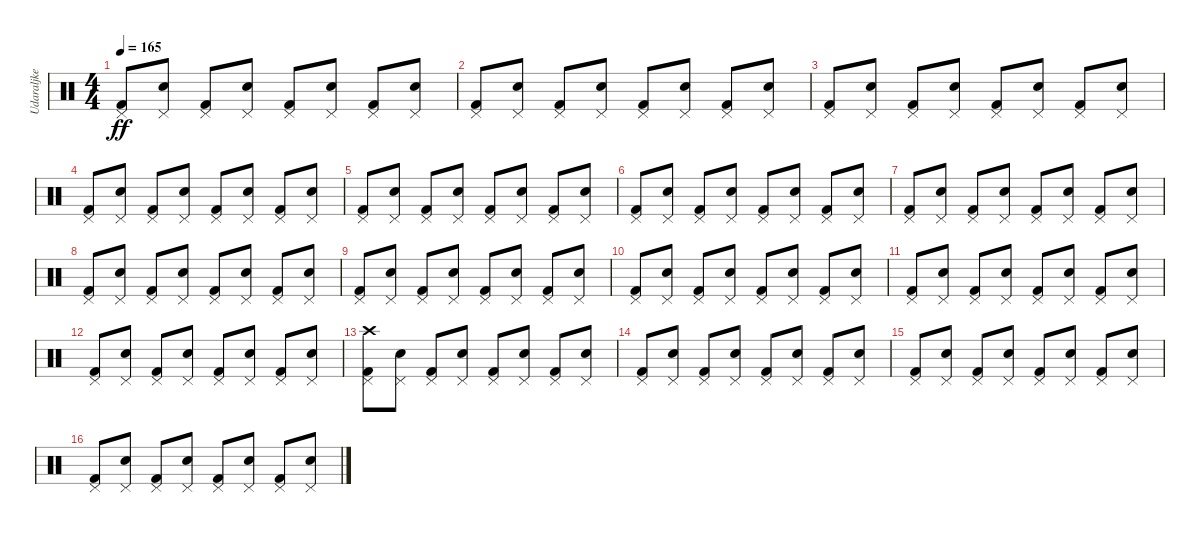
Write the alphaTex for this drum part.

\track ("Udaraljke" "Udaraljke") {instrument percussion}
\staff {score}
\articulation defaults
\ts (4 4)
\tempo 165
\clef neutral
\ks c
("Kick (hit) 2" "Pedal Hi-Hat (hit)").8{dy ff} ("Snare (hit) 2" "Pedal Hi-Hat (hit)").8 ("Kick (hit) 2" "Pedal Hi-Hat (hit)").8 ("Snare (hit) 2" "Pedal Hi-Hat (hit)").8 ("Kick (hit) 2" "Pedal Hi-Hat (hit)").8 ("Snare (hit) 2" "Pedal Hi-Hat (hit)").8 ("Kick (hit) 2" "Pedal Hi-Hat (hit)").8 ("Snare (hit) 2" "Pedal Hi-Hat (hit)").8 |
("Kick (hit) 2" "Pedal Hi-Hat (hit)").8 ("Snare (hit) 2" "Pedal Hi-Hat (hit)").8 ("Kick (hit) 2" "Pedal Hi-Hat (hit)").8 ("Snare (hit) 2" "Pedal Hi-Hat (hit)").8 ("Kick (hit) 2" "Pedal Hi-Hat (hit)").8 ("Snare (hit) 2" "Pedal Hi-Hat (hit)").8 ("Kick (hit) 2" "Pedal Hi-Hat (hit)").8 ("Snare (hit) 2" "Pedal Hi-Hat (hit)").8 |
("Kick (hit) 2" "Pedal Hi-Hat (hit)").8 ("Snare (hit) 2" "Pedal Hi-Hat (hit)").8 ("Kick (hit) 2" "Pedal Hi-Hat (hit)").8 ("Snare (hit) 2" "Pedal Hi-Hat (hit)").8 ("Kick (hit) 2" "Pedal Hi-Hat (hit)").8 ("Snare (hit) 2" "Pedal Hi-Hat (hit)").8 ("Kick (hit) 2" "Pedal Hi-Hat (hit)").8 ("Snare (hit) 2" "Pedal Hi-Hat (hit)").8 |
("Kick (hit) 2" "Pedal Hi-Hat (hit)").8 ("Snare (hit) 2" "Pedal Hi-Hat (hit)").8 ("Kick (hit) 2" "Pedal Hi-Hat (hit)").8 ("Snare (hit) 2" "Pedal Hi-Hat (hit)").8 ("Kick (hit) 2" "Pedal Hi-Hat (hit)").8 ("Snare (hit) 2" "Pedal Hi-Hat (hit)").8 ("Kick (hit) 2" "Pedal Hi-Hat (hit)").8 ("Snare (hit) 2" "Pedal Hi-Hat (hit)").8 |
("Kick (hit) 2" "Pedal Hi-Hat (hit)").8 ("Snare (hit) 2" "Pedal Hi-Hat (hit)").8 ("Kick (hit) 2" "Pedal Hi-Hat (hit)").8 ("Snare (hit) 2" "Pedal Hi-Hat (hit)").8 ("Kick (hit) 2" "Pedal Hi-Hat (hit)").8 ("Snare (hit) 2" "Pedal Hi-Hat (hit)").8 ("Kick (hit) 2" "Pedal Hi-Hat (hit)").8 ("Snare (hit) 2" "Pedal Hi-Hat (hit)").8 |
("Kick (hit) 2" "Pedal Hi-Hat (hit)").8 ("Snare (hit) 2" "Pedal Hi-Hat (hit)").8 ("Kick (hit) 2" "Pedal Hi-Hat (hit)").8 ("Snare (hit) 2" "Pedal Hi-Hat (hit)").8 ("Kick (hit) 2" "Pedal Hi-Hat (hit)").8 ("Snare (hit) 2" "Pedal Hi-Hat (hit)").8 ("Kick (hit) 2" "Pedal Hi-Hat (hit)").8 ("Snare (hit) 2" "Pedal Hi-Hat (hit)").8 |
("Kick (hit) 2" "Pedal Hi-Hat (hit)").8 ("Snare (hit) 2" "Pedal Hi-Hat (hit)").8 ("Kick (hit) 2" "Pedal Hi-Hat (hit)").8 ("Snare (hit) 2" "Pedal Hi-Hat (hit)").8 ("Kick (hit) 2" "Pedal Hi-Hat (hit)").8 ("Snare (hit) 2" "Pedal Hi-Hat (hit)").8 ("Kick (hit) 2" "Pedal Hi-Hat (hit)").8 ("Snare (hit) 2" "Pedal Hi-Hat (hit)").8 |
("Kick (hit) 2" "Pedal Hi-Hat (hit)").8 ("Snare (hit) 2" "Pedal Hi-Hat (hit)").8 ("Kick (hit) 2" "Pedal Hi-Hat (hit)").8 ("Snare (hit) 2" "Pedal Hi-Hat (hit)").8 ("Kick (hit) 2" "Pedal Hi-Hat (hit)").8 ("Snare (hit) 2" "Pedal Hi-Hat (hit)").8 ("Kick (hit) 2" "Pedal Hi-Hat (hit)").8 ("Snare (hit) 2" "Pedal Hi-Hat (hit)").8 |
("Kick (hit) 2" "Pedal Hi-Hat (hit)").8 ("Snare (hit) 2" "Pedal Hi-Hat (hit)").8 ("Kick (hit) 2" "Pedal Hi-Hat (hit)").8 ("Snare (hit) 2" "Pedal Hi-Hat (hit)").8 ("Kick (hit) 2" "Pedal Hi-Hat (hit)").8 ("Snare (hit) 2" "Pedal Hi-Hat (hit)").8 ("Kick (hit) 2" "Pedal Hi-Hat (hit)").8 ("Snare (hit) 2" "Pedal Hi-Hat (hit)").8 |
("Kick (hit) 2" "Pedal Hi-Hat (hit)").8 ("Snare (hit) 2" "Pedal Hi-Hat (hit)").8 ("Kick (hit) 2" "Pedal Hi-Hat (hit)").8 ("Snare (hit) 2" "Pedal Hi-Hat (hit)").8 ("Kick (hit) 2" "Pedal Hi-Hat (hit)").8 ("Snare (hit) 2" "Pedal Hi-Hat (hit)").8 ("Kick (hit) 2" "Pedal Hi-Hat (hit)").8 ("Snare (hit) 2" "Pedal Hi-Hat (hit)").8 |
("Kick (hit) 2" "Pedal Hi-Hat (hit)").8 ("Snare (hit) 2" "Pedal Hi-Hat (hit)").8 ("Kick (hit) 2" "Pedal Hi-Hat (hit)").8 ("Snare (hit) 2" "Pedal Hi-Hat (hit)").8 ("Kick (hit) 2" "Pedal Hi-Hat (hit)").8 ("Snare (hit) 2" "Pedal Hi-Hat (hit)").8 ("Kick (hit) 2" "Pedal Hi-Hat (hit)").8 ("Snare (hit) 2" "Pedal Hi-Hat (hit)").8 |
("Kick (hit) 2" "Pedal Hi-Hat (hit)").8 ("Snare (hit) 2" "Pedal Hi-Hat (hit)").8 ("Kick (hit) 2" "Pedal Hi-Hat (hit)").8 ("Snare (hit) 2" "Pedal Hi-Hat (hit)").8 ("Kick (hit) 2" "Pedal Hi-Hat (hit)").8 ("Snare (hit) 2" "Pedal Hi-Hat (hit)").8 ("Kick (hit) 2" "Pedal Hi-Hat (hit)").8 ("Snare (hit) 2" "Pedal Hi-Hat (hit)").8 |
("Kick (hit) 2" "Pedal Hi-Hat (hit)" "Crash high (hit)").8 ("Snare (hit) 2" "Pedal Hi-Hat (hit)").8 ("Kick (hit) 2" "Pedal Hi-Hat (hit)").8 ("Snare (hit) 2" "Pedal Hi-Hat (hit)").8 ("Kick (hit) 2" "Pedal Hi-Hat (hit)").8 ("Snare (hit) 2" "Pedal Hi-Hat (hit)").8 ("Kick (hit) 2" "Pedal Hi-Hat (hit)").8 ("Snare (hit) 2" "Pedal Hi-Hat (hit)").8 |
("Kick (hit) 2" "Pedal Hi-Hat (hit)").8 ("Snare (hit) 2" "Pedal Hi-Hat (hit)").8 ("Kick (hit) 2" "Pedal Hi-Hat (hit)").8 ("Snare (hit) 2" "Pedal Hi-Hat (hit)").8 ("Kick (hit) 2" "Pedal Hi-Hat (hit)").8 ("Snare (hit) 2" "Pedal Hi-Hat (hit)").8 ("Kick (hit) 2" "Pedal Hi-Hat (hit)").8 ("Snare (hit) 2" "Pedal Hi-Hat (hit)").8 |
("Kick (hit) 2" "Pedal Hi-Hat (hit)").8 ("Snare (hit) 2" "Pedal Hi-Hat (hit)").8 ("Kick (hit) 2" "Pedal Hi-Hat (hit)").8 ("Snare (hit) 2" "Pedal Hi-Hat (hit)").8 ("Kick (hit) 2" "Pedal Hi-Hat (hit)").8 ("Snare (hit) 2" "Pedal Hi-Hat (hit)").8 ("Kick (hit) 2" "Pedal Hi-Hat (hit)").8 ("Snare (hit) 2" "Pedal Hi-Hat (hit)").8 |
("Kick (hit) 2" "Pedal Hi-Hat (hit)").8 ("Snare (hit) 2" "Pedal Hi-Hat (hit)").8 ("Kick (hit) 2" "Pedal Hi-Hat (hit)").8 ("Snare (hit) 2" "Pedal Hi-Hat (hit)").8 ("Kick (hit) 2" "Pedal Hi-Hat (hit)").8 ("Snare (hit) 2" "Pedal Hi-Hat (hit)").8 ("Kick (hit) 2" "Pedal Hi-Hat (hit)").8 ("Snare (hit) 2" "Pedal Hi-Hat (hit)").8
